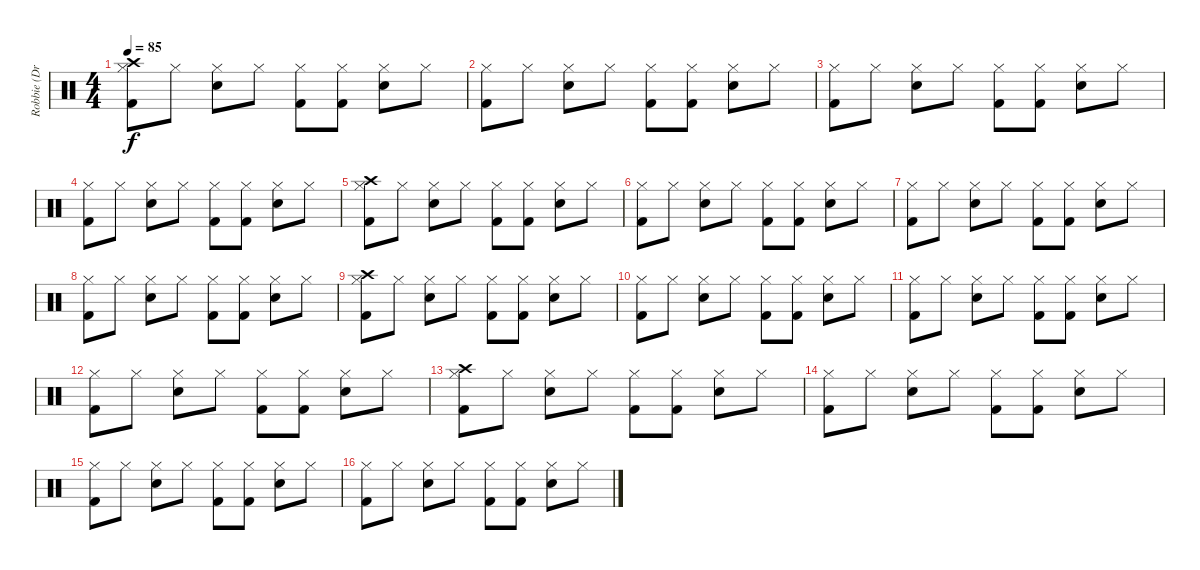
\track ("Robbie (Drums)" "Robbie (Dr") {instrument percussion}
\staff {score}
\articulation defaults
\ts (4 4)
\tempo 85
\clef neutral
\ks c
("Crash high (hit)" "Hi-Hat (closed)" "Kick (hit) 2").8{dy f} "Hi-Hat (closed)".8 ("Hi-Hat (closed)" "Electric Snare (hit)").8 "Hi-Hat (closed)".8 ("Hi-Hat (closed)" "Kick (hit) 2").8 ("Hi-Hat (closed)" "Kick (hit) 2").8 ("Hi-Hat (closed)" "Electric Snare (hit)").8 "Hi-Hat (closed)".8 |
("Hi-Hat (closed)" "Kick (hit) 2").8 "Hi-Hat (closed)".8 ("Hi-Hat (closed)" "Electric Snare (hit)").8 "Hi-Hat (closed)".8 ("Hi-Hat (closed)" "Kick (hit) 2").8 ("Hi-Hat (closed)" "Kick (hit) 2").8 ("Hi-Hat (closed)" "Electric Snare (hit)").8 "Hi-Hat (closed)".8 |
("Hi-Hat (closed)" "Kick (hit) 2").8 "Hi-Hat (closed)".8 ("Hi-Hat (closed)" "Electric Snare (hit)").8 "Hi-Hat (closed)".8 ("Hi-Hat (closed)" "Kick (hit) 2").8 ("Hi-Hat (closed)" "Kick (hit) 2").8 ("Hi-Hat (closed)" "Electric Snare (hit)").8 "Hi-Hat (closed)".8 |
("Hi-Hat (closed)" "Kick (hit) 2").8 "Hi-Hat (closed)".8 ("Hi-Hat (closed)" "Electric Snare (hit)").8 "Hi-Hat (closed)".8 ("Hi-Hat (closed)" "Kick (hit) 2").8 ("Hi-Hat (closed)" "Kick (hit) 2").8 ("Hi-Hat (closed)" "Electric Snare (hit)").8 "Hi-Hat (closed)".8 |
("Crash high (hit)" "Hi-Hat (closed)" "Kick (hit) 2").8 "Hi-Hat (closed)".8 ("Hi-Hat (closed)" "Electric Snare (hit)").8 "Hi-Hat (closed)".8 ("Hi-Hat (closed)" "Kick (hit) 2").8 ("Hi-Hat (closed)" "Kick (hit) 2").8 ("Hi-Hat (closed)" "Electric Snare (hit)").8 "Hi-Hat (closed)".8 |
("Hi-Hat (closed)" "Kick (hit) 2").8 "Hi-Hat (closed)".8 ("Hi-Hat (closed)" "Electric Snare (hit)").8 "Hi-Hat (closed)".8 ("Hi-Hat (closed)" "Kick (hit) 2").8 ("Hi-Hat (closed)" "Kick (hit) 2").8 ("Hi-Hat (closed)" "Electric Snare (hit)").8 "Hi-Hat (closed)".8 |
("Hi-Hat (closed)" "Kick (hit) 2").8 "Hi-Hat (closed)".8 ("Hi-Hat (closed)" "Electric Snare (hit)").8 "Hi-Hat (closed)".8 ("Hi-Hat (closed)" "Kick (hit) 2").8 ("Hi-Hat (closed)" "Kick (hit) 2").8 ("Hi-Hat (closed)" "Electric Snare (hit)").8 "Hi-Hat (closed)".8 |
("Hi-Hat (closed)" "Kick (hit) 2").8 "Hi-Hat (closed)".8 ("Hi-Hat (closed)" "Electric Snare (hit)").8 "Hi-Hat (closed)".8 ("Hi-Hat (closed)" "Kick (hit) 2").8 ("Hi-Hat (closed)" "Kick (hit) 2").8 ("Hi-Hat (closed)" "Electric Snare (hit)").8 "Hi-Hat (closed)".8 |
("Crash high (hit)" "Hi-Hat (closed)" "Kick (hit) 2").8 "Hi-Hat (closed)".8 ("Hi-Hat (closed)" "Electric Snare (hit)").8 "Hi-Hat (closed)".8 ("Hi-Hat (closed)" "Kick (hit) 2").8 ("Hi-Hat (closed)" "Kick (hit) 2").8 ("Hi-Hat (closed)" "Electric Snare (hit)").8 "Hi-Hat (closed)".8 |
("Hi-Hat (closed)" "Kick (hit) 2").8 "Hi-Hat (closed)".8 ("Hi-Hat (closed)" "Electric Snare (hit)").8 "Hi-Hat (closed)".8 ("Hi-Hat (closed)" "Kick (hit) 2").8 ("Hi-Hat (closed)" "Kick (hit) 2").8 ("Hi-Hat (closed)" "Electric Snare (hit)").8 "Hi-Hat (closed)".8 |
("Hi-Hat (closed)" "Kick (hit) 2").8 "Hi-Hat (closed)".8 ("Hi-Hat (closed)" "Electric Snare (hit)").8 "Hi-Hat (closed)".8 ("Hi-Hat (closed)" "Kick (hit) 2").8 ("Hi-Hat (closed)" "Kick (hit) 2").8 ("Hi-Hat (closed)" "Electric Snare (hit)").8 "Hi-Hat (closed)".8 |
("Hi-Hat (closed)" "Kick (hit) 2").8 "Hi-Hat (closed)".8 ("Hi-Hat (closed)" "Electric Snare (hit)").8 "Hi-Hat (closed)".8 ("Hi-Hat (closed)" "Kick (hit) 2").8 ("Hi-Hat (closed)" "Kick (hit) 2").8 ("Hi-Hat (closed)" "Electric Snare (hit)").8 "Hi-Hat (closed)".8 |
("Crash high (hit)" "Hi-Hat (closed)" "Kick (hit) 2").8 "Hi-Hat (closed)".8 ("Hi-Hat (closed)" "Electric Snare (hit)").8 "Hi-Hat (closed)".8 ("Hi-Hat (closed)" "Kick (hit) 2").8 ("Hi-Hat (closed)" "Kick (hit) 2").8 ("Hi-Hat (closed)" "Electric Snare (hit)").8 "Hi-Hat (closed)".8 |
("Hi-Hat (closed)" "Kick (hit) 2").8 "Hi-Hat (closed)".8 ("Hi-Hat (closed)" "Electric Snare (hit)").8 "Hi-Hat (closed)".8 ("Hi-Hat (closed)" "Kick (hit) 2").8 ("Hi-Hat (closed)" "Kick (hit) 2").8 ("Hi-Hat (closed)" "Electric Snare (hit)").8 "Hi-Hat (closed)".8 |
("Hi-Hat (closed)" "Kick (hit) 2").8 "Hi-Hat (closed)".8 ("Hi-Hat (closed)" "Electric Snare (hit)").8 "Hi-Hat (closed)".8 ("Hi-Hat (closed)" "Kick (hit) 2").8 ("Hi-Hat (closed)" "Kick (hit) 2").8 ("Hi-Hat (closed)" "Electric Snare (hit)").8 "Hi-Hat (closed)".8 |
("Hi-Hat (closed)" "Kick (hit) 2").8 "Hi-Hat (closed)".8 ("Hi-Hat (closed)" "Electric Snare (hit)").8 "Hi-Hat (closed)".8 ("Hi-Hat (closed)" "Kick (hit) 2").8 ("Hi-Hat (closed)" "Kick (hit) 2").8 ("Hi-Hat (closed)" "Electric Snare (hit)").8 "Hi-Hat (closed)".8
